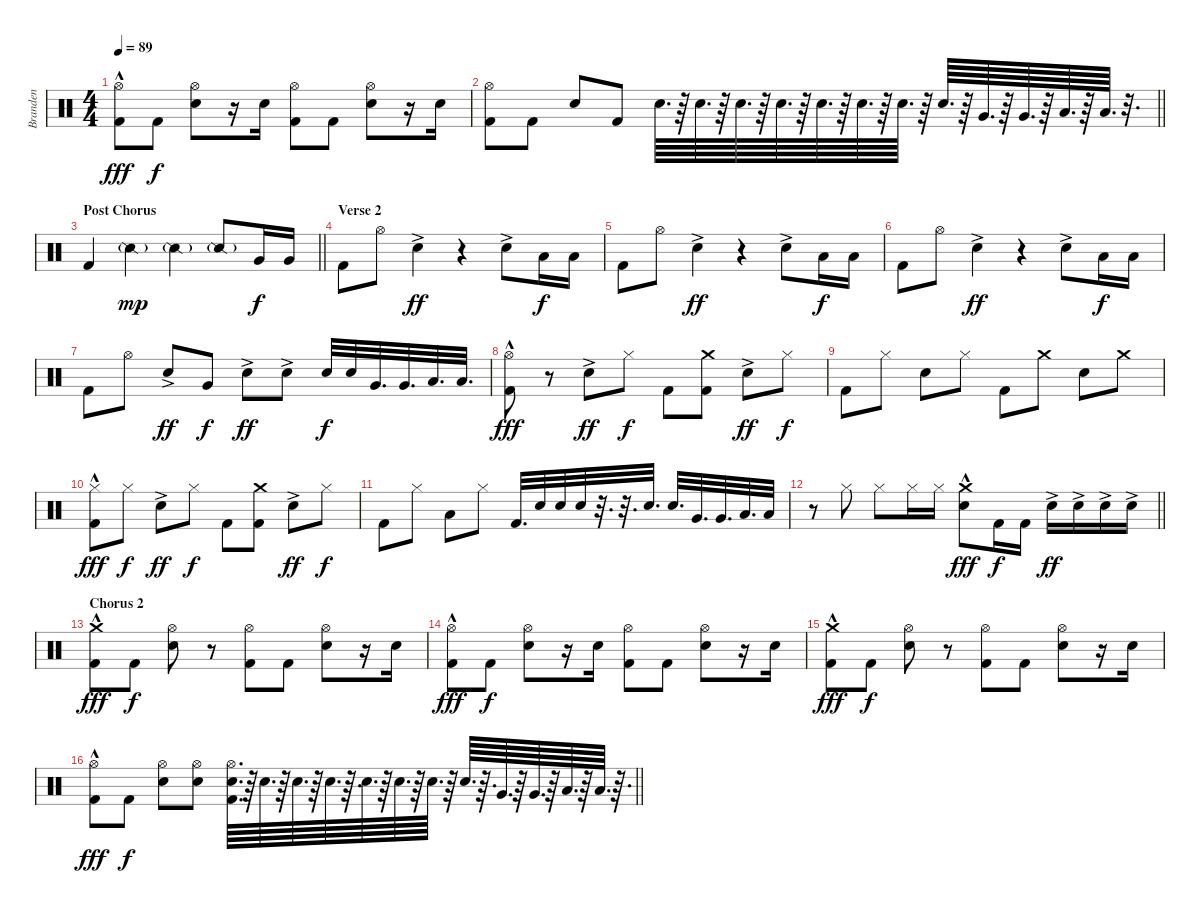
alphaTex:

\track ("Branden" "Branden") {instrument percussion}
\staff {score}
\articulation defaults
\ts (4 4)
\tempo 89
\clef neutral
\ks c
("Hi-Hat (open)"{hac} "Kick (hit) 2").8{dy fff} "Kick (hit) 2".8{dy f} ("Hi-Hat (open)" "Electric Snare (hit)").8 r.16 "Electric Snare (hit)".16 ("Hi-Hat (open)" "Kick (hit) 2").8 "Kick (hit) 2".8 ("Hi-Hat (open)" "Electric Snare (hit)").8 r.16 "Electric Snare (hit)".16 |
\barLineRight lightlight
("Hi-Hat (open)" "Kick (hit) 2").8 "Kick (hit) 2".8 "Electric Snare (hit)".8 "Kick (hit) 2".8 "Electric Snare (hit)".64{d} r.64 "Electric Snare (hit)".64{d} r.64 "Electric Snare (hit)".64{d} r.64 "Electric Snare (hit)".64{d} r.64 "Electric Snare (hit)".64{d} r.64 "Electric Snare (hit)".64{d} r.64 "Electric Snare (hit)".64{d} r.64 "Electric Snare (hit)".64{d} r.64 "Very Low Tom (hit)".64{d} r.64 "Very Low Tom (hit)".64{d} r.64 "Low Floor Tom (hit)".64{d} r.64 "Low Floor Tom (hit)".64{d} r.32{d} |
\section ("" "Post Chorus")
\barLineRight lightlight "Kick (hit) 2".4 "Snare (side stick) 2"{g}.4{dy mp} "Snare (side stick) 2"{g}.4 "Snare (side stick) 2"{g}.8 "Very Low Tom (hit)".16{dy f} "Very Low Tom (hit)".16
|
\section ("" "Verse 2")
"Kick (hit) 2".8 "Hi-Hat (open)".8 "Electric Snare (hit)"{ac}.4{dy ff} r.4 "Electric Snare (hit)"{ac}.8 "Low Floor Tom (hit)".16{dy f} "Low Floor Tom (hit)".16 |
"Kick (hit) 2".8 "Hi-Hat (open)".8 "Electric Snare (hit)"{ac}.4{dy ff} r.4 "Electric Snare (hit)"{ac}.8 "Low Floor Tom (hit)".16{dy f} "Low Floor Tom (hit)".16 |
"Kick (hit) 2".8 "Hi-Hat (open)".8 "Electric Snare (hit)"{ac}.4{dy ff} r.4 "Electric Snare (hit)"{ac}.8 "Low Floor Tom (hit)".16{dy f} "Low Floor Tom (hit)".16 |
"Kick (hit) 2".8 "Hi-Hat (open)".8 "Electric Snare (hit)"{ac}.8{dy ff} "Very Low Tom (hit)".8{dy f} "Electric Snare (hit)"{ac}.8{dy ff} "Electric Snare (hit)"{ac}.8 "Electric Snare (hit)".32{dy f} "Electric Snare (hit)".32 "Very Low Tom (hit)".32{d} "Very Low Tom (hit)".32{d} "Low Floor Tom (hit)".32{d} "Low Floor Tom (hit)".32{d} |
("Hi-Hat (open)"{hac} "Kick (hit) 2").8{dy fff} r.8 "Electric Snare (hit)"{ac}.8{dy ff} "Hi-Hat (closed)".8{dy f} "Kick (hit) 2".8 ("Crash medium (hit)" "Kick (hit) 2").8 "Electric Snare (hit)"{ac}.8{dy ff} "Hi-Hat (closed)".8{dy f} |
"Kick (hit) 2".8 "Hi-Hat (closed)".8 "Electric Snare (hit)".8 "Hi-Hat (closed)".8 "Kick (hit) 2".8 "Crash medium (hit)".8 "Electric Snare (hit)".8 "Crash medium (hit)".8 |
("Hi-Hat (closed)"{hac} "Kick (hit) 2").8{dy fff} "Hi-Hat (closed)".8{dy f} "Electric Snare (hit)"{ac}.8{dy ff} "Hi-Hat (closed)".8{dy f} "Kick (hit) 2".8 ("Crash medium (hit)" "Kick (hit) 2").8 "Electric Snare (hit)"{ac}.8{dy ff} "Hi-Hat (closed)".8{dy f} |
"Kick (hit) 2".8 "Hi-Hat (closed)".8 "Low Tom (hit)".8 "Hi-Hat (closed)".8 "Kick (hit) 2".32{d} "Electric Snare (hit)".32 "Electric Snare (hit)".32 "Electric Snare (hit)".32 r.32{d} r.32{d} "Electric Snare (hit)".32{d} "Electric Snare (hit)".32{d} "Very Low Tom (hit)".32{d} "Very Low Tom (hit)".32{d} "Low Floor Tom (hit)".32{d} "Low Floor Tom (hit)".32 |
\barLineRight lightlight
r.8 "Hi-Hat (closed)".8 "Hi-Hat (closed)".8 "Hi-Hat (closed)".16 "Hi-Hat (closed)".16 ("Crash medium (hit)"{hac} "Electric Snare (hit)"{hac}).8{dy fff} "Kick (hit) 2".16{dy f} "Kick (hit) 2".16 "Electric Snare (hit)"{ac}.16{bd 60 dy ff} "Electric Snare (hit)"{ac}.16 "Electric Snare (hit)"{ac}.16 "Electric Snare (hit)"{ac}.16 |
\section ("" "Chorus 2")
("Crash medium (hit)"{hac} "Kick (hit) 2").8{dy fff} "Kick (hit) 2".8{dy f} ("Hi-Hat (open)" "Electric Snare (hit)").8 r.8 ("Hi-Hat (open)" "Kick (hit) 2").8 "Kick (hit) 2".8 ("Hi-Hat (open)" "Electric Snare (hit)").8 r.16 "Electric Snare (hit)".16 |
("Hi-Hat (open)"{hac} "Kick (hit) 2").8{dy fff} "Kick (hit) 2".8{dy f} ("Hi-Hat (open)" "Electric Snare (hit)").8 r.16 "Electric Snare (hit)".16 ("Hi-Hat (open)" "Kick (hit) 2").8 "Kick (hit) 2".8 ("Hi-Hat (open)" "Electric Snare (hit)").8 r.16 "Electric Snare (hit)".16 |
("Crash medium (hit)"{hac} "Kick (hit) 2").8{dy fff} "Kick (hit) 2".8{dy f} ("Hi-Hat (open)" "Electric Snare (hit)").8 r.8 ("Hi-Hat (open)" "Kick (hit) 2").8 "Kick (hit) 2".8 ("Hi-Hat (open)" "Electric Snare (hit)").8 r.16 "Electric Snare (hit)".16 |
\barLineRight lightlight
("Hi-Hat (open)"{hac} "Kick (hit) 2").8{dy fff} "Kick (hit) 2".8{dy f} ("Hi-Hat (open)" "Electric Snare (hit)").8 ("Hi-Hat (open)" "Electric Snare (hit)").8 ("Hi-Hat (open)" "Electric Snare (hit)" "Kick (hit) 2").64{d} r.64 "Electric Snare (hit)".64{d} r.64 "Electric Snare (hit)".64{d} r.64 "Electric Snare (hit)".64{d} r.64{d} "Electric Snare (hit)".64{d} r.64 "Electric Snare (hit)".64{d} r.64 "Electric Snare (hit)".64{d} r.64 "Electric Snare (hit)".64{d} r.64{d} "Very Low Tom (hit)".64{d} r.64 "Very Low Tom (hit)".64{d} r.64 "Low Floor Tom (hit)".64{d} r.64 "Low Floor Tom (hit)".64{d} r.64{d}
